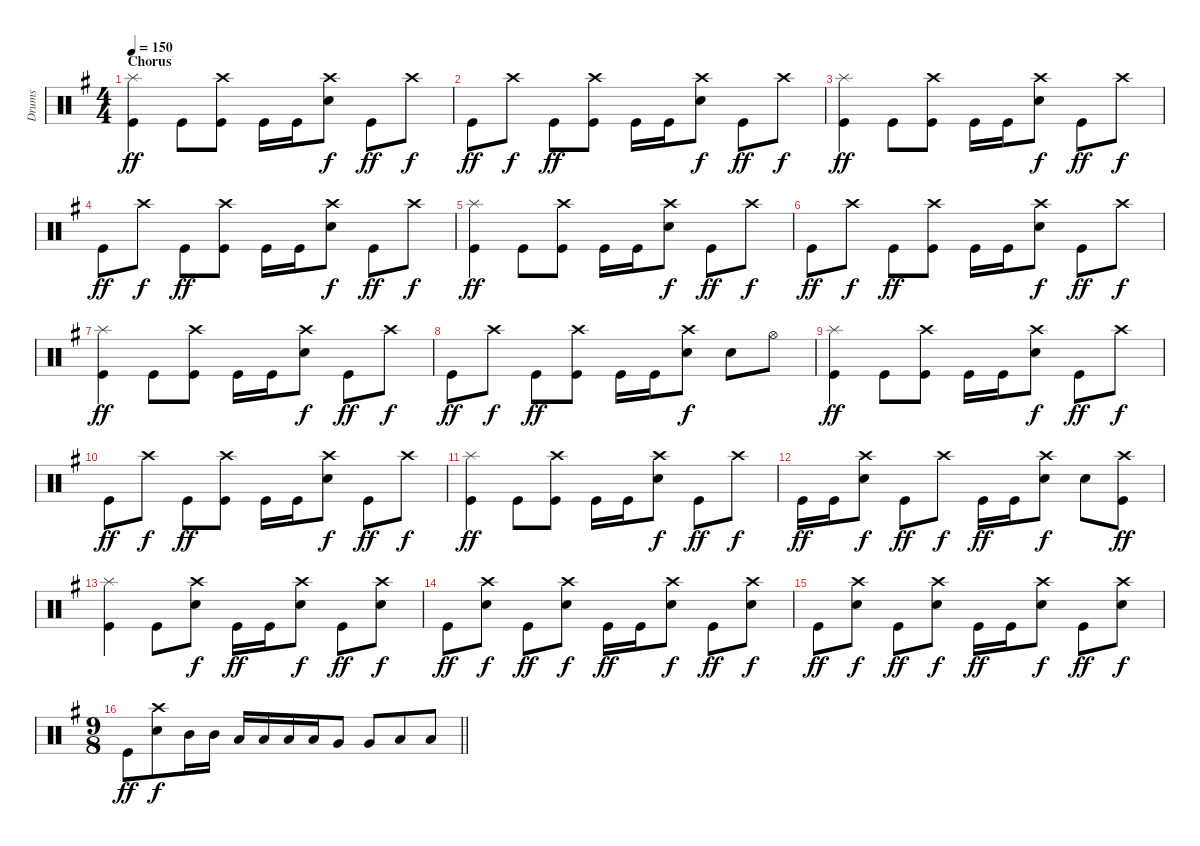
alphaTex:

\track ("Drums" "Drums") {instrument percussion}
\staff {score}
\articulation defaults
\ts (4 4)
\section ("" "Chorus")
\tempo 150
\clef neutral
\ks g
("Splash (hit)" "Kick (hit)").4{dy ff} "Kick (hit)".8 ("Crash high (hit)" "Kick (hit)").8 "Kick (hit)".16 "Kick (hit)".16 ("Crash high (hit)" "Electric Snare (hit)").8{dy f} "Kick (hit)".8{dy ff} "Crash high (hit)".8{dy f} |
"Kick (hit)".8{dy ff} "Crash high (hit)".8{dy f} "Kick (hit)".8{dy ff} ("Crash high (hit)" "Kick (hit)").8 "Kick (hit)".16 "Kick (hit)".16 ("Crash high (hit)" "Electric Snare (hit)").8{dy f} "Kick (hit)".8{dy ff} "Crash high (hit)".8{dy f} |
("Splash (hit)" "Kick (hit)").4{dy ff} "Kick (hit)".8 ("Crash high (hit)" "Kick (hit)").8 "Kick (hit)".16 "Kick (hit)".16 ("Crash high (hit)" "Electric Snare (hit)").8{dy f} "Kick (hit)".8{dy ff} "Crash high (hit)".8{dy f} |
"Kick (hit)".8{dy ff} "Crash high (hit)".8{dy f} "Kick (hit)".8{dy ff} ("Crash high (hit)" "Kick (hit)").8 "Kick (hit)".16 "Kick (hit)".16 ("Crash high (hit)" "Electric Snare (hit)").8{dy f} "Kick (hit)".8{dy ff} "Crash high (hit)".8{dy f} |
("Splash (hit)" "Kick (hit)").4{dy ff} "Kick (hit)".8 ("Crash high (hit)" "Kick (hit)").8 "Kick (hit)".16 "Kick (hit)".16 ("Crash high (hit)" "Electric Snare (hit)").8{dy f} "Kick (hit)".8{dy ff} "Crash high (hit)".8{dy f} |
"Kick (hit)".8{dy ff} "Crash high (hit)".8{dy f} "Kick (hit)".8{dy ff} ("Crash high (hit)" "Kick (hit)").8 "Kick (hit)".16 "Kick (hit)".16 ("Crash high (hit)" "Electric Snare (hit)").8{dy f} "Kick (hit)".8{dy ff} "Crash high (hit)".8{dy f} |
("Splash (hit)" "Kick (hit)").4{dy ff} "Kick (hit)".8 ("Crash high (hit)" "Kick (hit)").8 "Kick (hit)".16 "Kick (hit)".16 ("Crash high (hit)" "Electric Snare (hit)").8{dy f} "Kick (hit)".8{dy ff} "Crash high (hit)".8{dy f} |
"Kick (hit)".8{dy ff} "Crash high (hit)".8{dy f} "Kick (hit)".8{dy ff} ("Crash high (hit)" "Kick (hit)").8 "Kick (hit)".16 "Kick (hit)".16 ("Crash high (hit)" "Electric Snare (hit)").8{dy f} "Electric Snare (hit)".8 "Hi-Hat (open)".8 |
("Splash (hit)" "Kick (hit)").4{dy ff} "Kick (hit)".8 ("Crash high (hit)" "Kick (hit)").8 "Kick (hit)".16 "Kick (hit)".16 ("Crash high (hit)" "Electric Snare (hit)").8{dy f} "Kick (hit)".8{dy ff} "Crash high (hit)".8{dy f} |
"Kick (hit)".8{dy ff} "Crash high (hit)".8{dy f} "Kick (hit)".8{dy ff} ("Crash high (hit)" "Kick (hit)").8 "Kick (hit)".16 "Kick (hit)".16 ("Crash high (hit)" "Electric Snare (hit)").8{dy f} "Kick (hit)".8{dy ff} "Crash high (hit)".8{dy f} |
("Splash (hit)" "Kick (hit)").4{dy ff} "Kick (hit)".8 ("Crash high (hit)" "Kick (hit)").8 "Kick (hit)".16 "Kick (hit)".16 ("Crash high (hit)" "Electric Snare (hit)").8{dy f} "Kick (hit)".8{dy ff} "Crash high (hit)".8{dy f} |
"Kick (hit)".16{dy ff} "Kick (hit)".16 ("Crash high (hit)" "Electric Snare (hit)").8{dy f} "Kick (hit)".8{dy ff} "Crash high (hit)".8{dy f} "Kick (hit)".16{dy ff} "Kick (hit)".16 ("Crash high (hit)" "Electric Snare (hit)").8{dy f} "Electric Snare (hit)".8 ("Crash high (hit)" "Kick (hit)").8{dy ff} |
("Splash (hit)" "Kick (hit)").4 "Kick (hit)".8 ("Crash high (hit)" "Electric Snare (hit)").8{dy f} "Kick (hit)".16{dy ff} "Kick (hit)".16 ("Crash high (hit)" "Electric Snare (hit)").8{dy f} "Kick (hit)".8{dy ff} ("Crash high (hit)" "Electric Snare (hit)").8{dy f} |
"Kick (hit)".8{dy ff} ("Crash high (hit)" "Electric Snare (hit)").8{dy f} "Kick (hit)".8{dy ff} ("Crash high (hit)" "Electric Snare (hit)").8{dy f} "Kick (hit)".16{dy ff} "Kick (hit)".16 ("Crash high (hit)" "Electric Snare (hit)").8{dy f} "Kick (hit)".8{dy ff} ("Crash high (hit)" "Electric Snare (hit)").8{dy f} |
"Kick (hit)".8{dy ff} ("Crash high (hit)" "Electric Snare (hit)").8{dy f} "Kick (hit)".8{dy ff} ("Crash high (hit)" "Electric Snare (hit)").8{dy f} "Kick (hit)".16{dy ff} "Kick (hit)".16 ("Crash high (hit)" "Electric Snare (hit)").8{dy f} "Kick (hit)".8{dy ff} ("Crash high (hit)" "Electric Snare (hit)").8{dy f} |
\ts (9 8)
\barLineRight lightlight "Kick (hit)".8{dy ff}
("Crash high (hit)" "Electric Snare (hit)").8{dy f} "Mid Tom (hit)".16 "Mid Tom (hit)".16 "Low Tom (hit)".16 "Low Tom (hit)".16 "Low Tom (hit)".16 "Low Tom (hit)".16{beam merge} "Very Low Tom (hit)".8{beam split} "Very Low Tom (hit)".8 "Low Floor Tom (hit)".8 "Low Floor Tom (hit)".8
